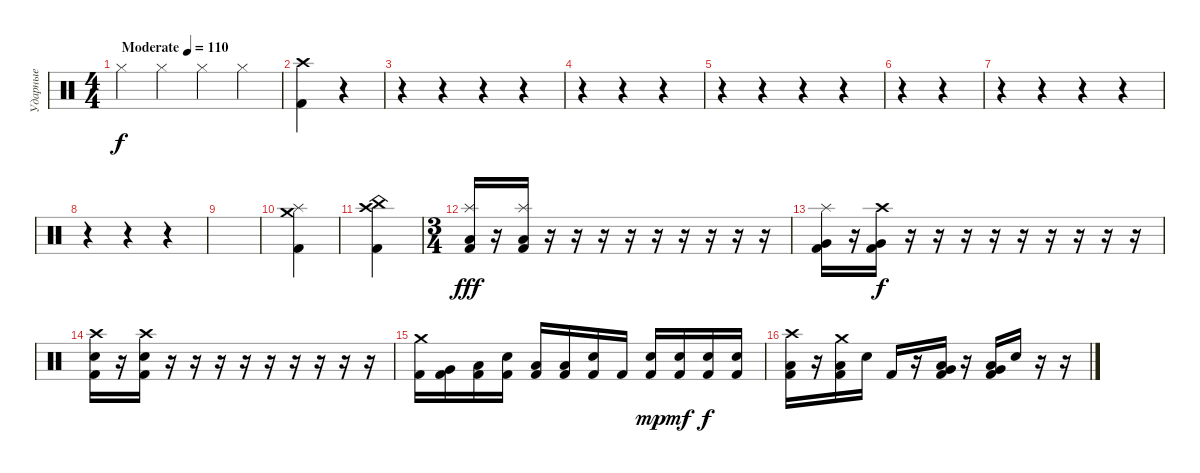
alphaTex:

\track ("Ударные" "Ударные") {instrument percussion}
\staff {score}
\articulation defaults
\ts (4 4)
\tempo (110 "Moderate")
\clef neutral
\ks c "Hi-Hat (closed)".4{dy f} "Hi-Hat (closed)".4 "Hi-Hat (closed)".4 "Hi-Hat (closed)".4
|
("Crash high (hit)" "Kick (hit) 2").4 r.4 |
r.4 r.4 r.4 r.4 |
r.4 r.4 r.4 |
r.4 r.4 r.4 r.4 |
r.4 r.4 |
r.4 r.4 r.4 r.4 |
r.4 r.4 r.4 |
|
("Crash medium (hit)" "Splash (hit)" "Kick (hit) 2").4 |
("Crash high (hit)" "China (hit)" "Kick (hit) 2").4 |
\ts (3 4)
("Splash (hit)" "Low Tom (hit)" "Kick (hit) 2").16{dy fff} r.16 ("Splash (hit)" "Low Tom (hit)" "Kick (hit) 2").16 r.16 r.16 r.16 r.16 r.16 r.16 r.16 r.16 r.16 |
("Splash (hit)" "Very Low Tom (hit)" "Kick (hit) 2").16 r.16 ("Crash high (hit)" "Very Low Tom (hit)" "Kick (hit) 2").16{dy f} r.16 r.16 r.16 r.16 r.16 r.16 r.16 r.16 r.16 |
("Crash high (hit)" "Snare (hit) 2" "Kick (hit) 2").16 r.16 ("Crash high (hit)" "Snare (hit) 2" "Kick (hit) 2").16 r.16 r.16 r.16 r.16 r.16 r.16 r.16 r.16 r.16 |
("Crash medium (hit)" "Kick (hit) 2").16 ("Very Low Tom (hit)" "Kick (hit) 2").16 ("Low Floor Tom (hit)" "Kick (hit) 2").16 ("Snare (hit) 2" "Kick (hit) 2").16 ("Low Tom (hit)" "Kick (hit) 2").16 ("Low Tom (hit)" "Kick (hit) 2").16 ("Snare (hit) 2" "Kick (hit) 2").16 "Kick (hit) 2".16 ("Snare (hit) 2" "Kick (hit) 2").16{dy mp} ("Snare (hit) 2" "Kick (hit) 2").16{dy mf} ("Snare (hit) 2" "Kick (hit) 2").16{dy f} ("Snare (hit) 2" "Kick (hit) 2").16 |
("Crash high (hit)" "Low Floor Tom (hit)" "Kick (hit) 2").16 r.16 ("Crash medium (hit)" "Low Tom (hit)" "Kick (hit) 2").16 "Snare (hit) 2".16 "Kick (hit) 2".16 r.16 ("Very Low Tom (hit)" "Low Floor Tom (hit)" "Kick (hit) 2").16 r.16 ("Low Tom (hit)" "Very Low Tom (hit)" "Kick (hit) 2").16 "Snare (hit) 2".16 r.16 r.16
